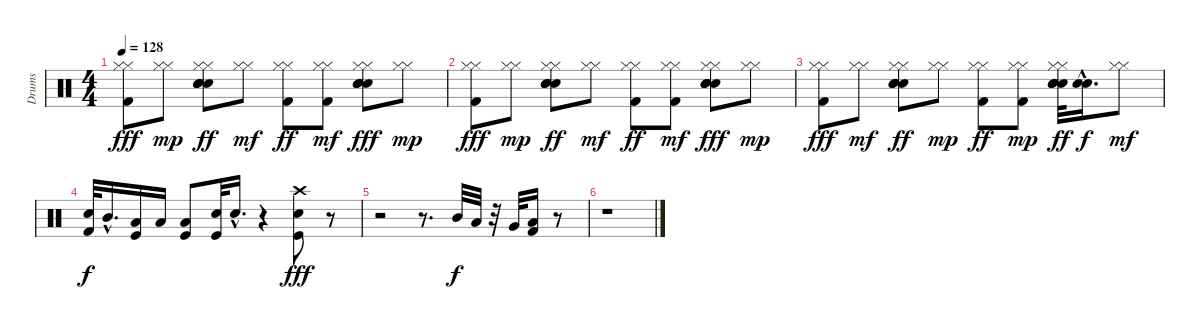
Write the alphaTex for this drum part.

\track ("Drums" "Drums") {instrument percussion}
\staff {score}
\articulation defaults
\ts (4 4)
\tempo 128
\clef neutral
\ks c
("Kick (hit) 2" "Hi-Hat (closed)" "Hi-Hat (closed)").8{dy fff} ("Hi-Hat (closed)" "Hi-Hat (closed)").8{dy mp} ("Hi-Hat (closed)" "Hi-Hat (closed)" "Snare (hit) 2" "Electric Snare (hit)" "Electric Snare (hit)" "Electric Snare (hit)").8{dy ff} ("Hi-Hat (closed)" "Hi-Hat (closed)").8{dy mf} ("Kick (hit) 2" "Hi-Hat (closed)" "Hi-Hat (closed)").8{dy ff} ("Kick (hit) 2" "Hi-Hat (closed)" "Hi-Hat (closed)").8{dy mf} ("Snare (hit) 2" "Hi-Hat (closed)" "Hi-Hat (closed)" "Electric Snare (hit)" "Electric Snare (hit)" "Electric Snare (hit)").8{dy fff} ("Hi-Hat (closed)" "Hi-Hat (closed)").8{dy mp} |
("Kick (hit) 2" "Hi-Hat (closed)" "Hi-Hat (closed)").8{dy fff} ("Hi-Hat (closed)" "Hi-Hat (closed)").8{dy mp} ("Hi-Hat (closed)" "Hi-Hat (closed)" "Snare (hit) 2" "Electric Snare (hit)" "Electric Snare (hit)" "Electric Snare (hit)").8{dy ff} ("Hi-Hat (closed)" "Hi-Hat (closed)").8{dy mf} ("Kick (hit) 2" "Hi-Hat (closed)" "Hi-Hat (closed)").8{dy ff} ("Kick (hit) 2" "Hi-Hat (closed)" "Hi-Hat (closed)").8{dy mf} ("Snare (hit) 2" "Hi-Hat (closed)" "Hi-Hat (closed)" "Electric Snare (hit)" "Electric Snare (hit)" "Electric Snare (hit)").8{dy fff} ("Hi-Hat (closed)" "Hi-Hat (closed)").8{dy mp} |
("Kick (hit) 2" "Hi-Hat (closed)" "Hi-Hat (closed)").8{dy fff} ("Hi-Hat (closed)" "Hi-Hat (closed)").8{dy mf} ("Hi-Hat (closed)" "Hi-Hat (closed)" "Snare (hit) 2" "Electric Snare (hit)" "Electric Snare (hit)" "Electric Snare (hit)").8{dy ff} ("Hi-Hat (closed)" "Hi-Hat (closed)").8{dy mp} ("Hi-Hat (closed)" "Hi-Hat (closed)" "Kick (hit) 2").8{dy ff} ("Hi-Hat (closed)" "Hi-Hat (closed)" "Kick (hit) 2").8{dy mp} ("Snare (hit) 2" "Hi-Hat (closed)" "Hi-Hat (closed)" "Electric Snare (hit)" "Electric Snare (hit)" "Electric Snare (hit)").32{dy ff} ("Snare (hit) 2" "Electric Snare (hit)"{hac}).16{d dy f} ("Hi-Hat (closed)" "Hi-Hat (closed)").8{dy mf} |
("Kick (hit) 2" "Snare (hit) 2").32{dy f} "Mid Tom (hit)"{hac}.16{d} ("Low Tom (hit)" "Kick (hit)").16 "Low Tom (hit)".16 ("Low Floor Tom (hit)" "Kick (hit)").8 ("Snare (hit) 2" "Kick (hit)").32 "Snare (hit) 2"{hac}.16{d} r.4 ("Kick (hit)" "Snare (hit) 2" "Crash high (hit)").8{dy fff} r.8 |
r.2 r.8{d} "Mid Tom (hit)".32{dy f} "Low Tom (hit)".32 r.32 "Very Low Tom (hit)".32 ("Kick (hit) 2" "Low Floor Tom (hit)").16 r.8 |
r.1
